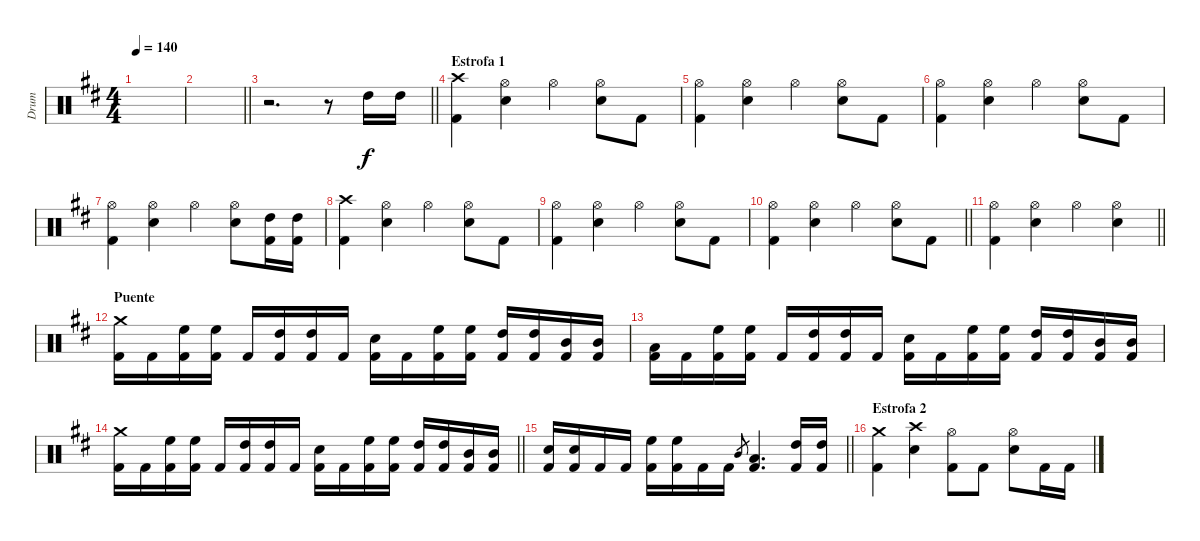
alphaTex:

\track ("Drum" "Drum") {instrument percussion}
\staff {score}
\articulation defaults
\ts (4 4)
\tempo 140
\clef neutral
\ks bminor
|
\barLineRight lightlight
|
\barLineRight lightlight
r.2{d} r.8 "High Tom (hit)".16 "High Tom (hit)".16 |
\section ("" "Estrofa 1")
("Crash high (hit)" "Kick (hit) 2").4 ("Hi-Hat (open)" "Snare (hit) 2").4 "Hi-Hat (open)".4 ("Hi-Hat (open)" "Snare (hit) 2").8 "Kick (hit) 2".8 |
("Hi-Hat (open)" "Kick (hit) 2").4 ("Hi-Hat (open)" "Snare (hit) 2").4 "Hi-Hat (open)".4 ("Hi-Hat (open)" "Snare (hit) 2").8 "Kick (hit) 2".8 |
("Hi-Hat (open)" "Kick (hit) 2").4 ("Hi-Hat (open)" "Snare (hit) 2").4 "Hi-Hat (open)".4 ("Hi-Hat (open)" "Snare (hit) 2").8 "Kick (hit) 2".8 |
("Hi-Hat (open)" "Kick (hit) 2").4 ("Hi-Hat (open)" "Snare (hit) 2").4 "Hi-Hat (open)".4 ("Hi-Hat (open)" "Snare (hit) 2").8 ("High Tom (hit)" "Kick (hit) 2").16 ("High Tom (hit)" "Kick (hit) 2").16 |
("Crash high (hit)" "Kick (hit) 2").4 ("Hi-Hat (open)" "Snare (hit) 2").4 "Hi-Hat (open)".4 ("Hi-Hat (open)" "Snare (hit) 2").8 "Kick (hit) 2".8 |
("Hi-Hat (open)" "Kick (hit) 2").4 ("Hi-Hat (open)" "Snare (hit) 2").4 "Hi-Hat (open)".4 ("Hi-Hat (open)" "Snare (hit) 2").8 "Kick (hit) 2".8 |
\barLineRight lightlight
("Hi-Hat (open)" "Kick (hit) 2").4 ("Hi-Hat (open)" "Snare (hit) 2").4 "Hi-Hat (open)".4 ("Hi-Hat (open)" "Snare (hit) 2").8 "Kick (hit) 2".8 |
\barLineRight lightlight
("Hi-Hat (open)" "Kick (hit) 2").4 ("Hi-Hat (open)" "Snare (hit) 2").4 "Hi-Hat (open)".4 ("Hi-Hat (open)" "Snare (hit) 2").4 |
\section ("" "Puente")
("Crash medium (hit)" "Kick (hit) 2").16 "Kick (hit) 2".16 ("High Floor Tom (hit)" "Kick (hit) 2").16 ("High Floor Tom (hit)" "Kick (hit) 2").16 "Kick (hit) 2".16 ("High Tom (hit)" "Kick (hit) 2").16 ("High Tom (hit)" "Kick (hit) 2").16 "Kick (hit) 2".16 ("Snare (hit) 2" "Kick (hit) 2").16 "Kick (hit) 2".16 ("High Floor Tom (hit)" "Kick (hit) 2").16 ("High Floor Tom (hit)" "Kick (hit) 2").16 ("High Tom (hit)" "Kick (hit) 2").16 ("High Tom (hit)" "Kick (hit) 2").16 ("Mid Tom (hit)" "Kick (hit) 2").16 ("Mid Tom (hit)" "Kick (hit) 2").16 |
("Low Tom (hit)" "Kick (hit) 2").16 "Kick (hit) 2".16 ("High Floor Tom (hit)" "Kick (hit) 2").16 ("High Floor Tom (hit)" "Kick (hit) 2").16 "Kick (hit) 2".16 ("High Tom (hit)" "Kick (hit) 2").16 ("High Tom (hit)" "Kick (hit) 2").16 "Kick (hit) 2".16 ("Snare (hit) 2" "Kick (hit) 2").16 "Kick (hit) 2".16 ("High Floor Tom (hit)" "Kick (hit) 2").16 ("High Floor Tom (hit)" "Kick (hit) 2").16 ("High Tom (hit)" "Kick (hit) 2").16 ("High Tom (hit)" "Kick (hit) 2").16 ("Mid Tom (hit)" "Kick (hit) 2").16 ("Mid Tom (hit)" "Kick (hit) 2").16 |
\barLineRight lightlight
("Crash medium (hit)" "Kick (hit) 2").16 "Kick (hit) 2".16 ("High Floor Tom (hit)" "Kick (hit) 2").16 ("High Floor Tom (hit)" "Kick (hit) 2").16 "Kick (hit) 2".16 ("High Tom (hit)" "Kick (hit) 2").16 ("High Tom (hit)" "Kick (hit) 2").16 "Kick (hit) 2".16 ("Snare (hit) 2" "Kick (hit) 2").16 "Kick (hit) 2".16 ("High Floor Tom (hit)" "Kick (hit) 2").16 ("High Floor Tom (hit)" "Kick (hit) 2").16 ("High Tom (hit)" "Kick (hit) 2").16 ("High Tom (hit)" "Kick (hit) 2").16 ("Mid Tom (hit)" "Kick (hit) 2").16 ("Mid Tom (hit)" "Kick (hit) 2").16 |
\barLineRight lightlight
("Snare (hit) 2" "Kick (hit) 2").16 ("Snare (hit) 2" "Kick (hit) 2").16 "Kick (hit) 2".16 "Kick (hit) 2".16 ("High Floor Tom (hit)" "Kick (hit) 2").16 ("High Floor Tom (hit)" "Kick (hit) 2").16 "Kick (hit) 2".16 "Kick (hit) 2".16 "Mid Tom (hit)".8{gr} ("Low Tom (hit)" "Kick (hit) 2").4{d} ("High Tom (hit)" "Kick (hit) 2").16 ("High Tom (hit)" "Kick (hit) 2").16 |
\section ("" "Estrofa 2")
("Crash medium (hit)" "Kick (hit) 2").4 ("Crash high (hit)" "Snare (hit) 2").4 ("Hi-Hat (open)" "Kick (hit) 2").8 "Kick (hit) 2".8 ("Hi-Hat (open)" "Snare (hit) 2").8 "Kick (hit) 2".16 "Kick (hit) 2".16
